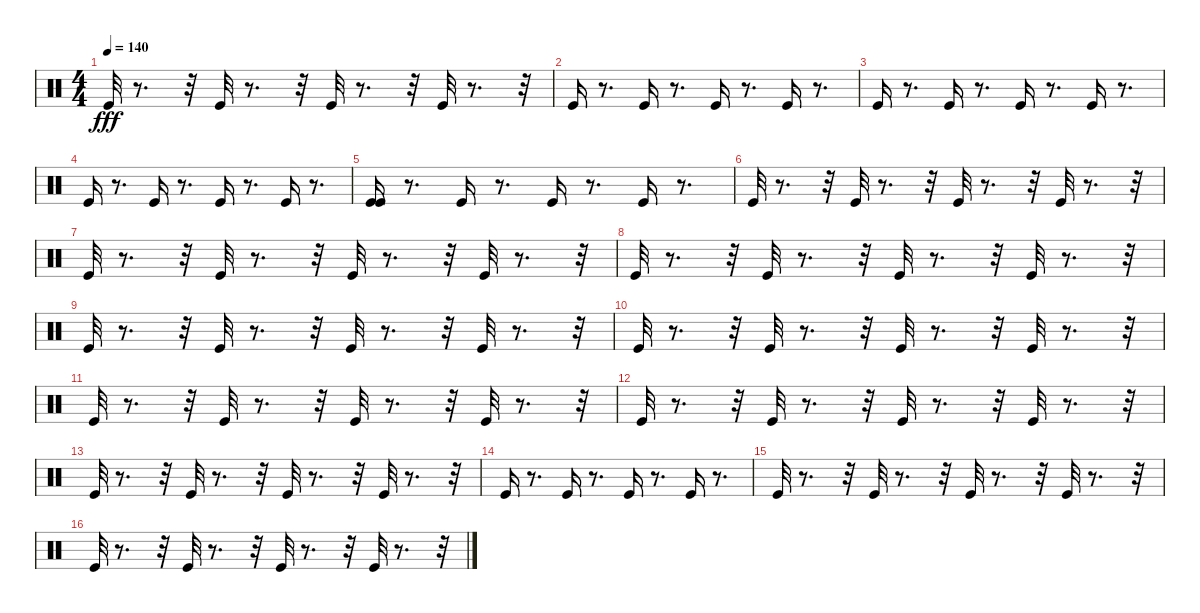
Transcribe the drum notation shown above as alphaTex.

\track "" {instrument percussion}
\staff {score}
\articulation defaults
\ts (4 4)
\tempo 140
\clef neutral
\ks c "Kick (hit)".32{dy fff}
r.8{d} r.32 "Kick (hit)".32 r.8{d} r.32 "Kick (hit)".32 r.8{d} r.32 "Kick (hit)".32 r.8{d} r.32 |
"Kick (hit)".16 r.8{d} "Kick (hit)".16 r.8{d} "Kick (hit)".16 r.8{d} "Kick (hit)".16 r.8{d} |
"Kick (hit)".16 r.8{d} "Kick (hit)".16 r.8{d} "Kick (hit)".16 r.8{d} "Kick (hit)".16 r.8{d} |
"Kick (hit)".16 r.8{d} "Kick (hit)".16 r.8{d} "Kick (hit)".16 r.8{d} "Kick (hit)".16 r.8{d} |
("Kick (hit)" "Kick (hit)").16 r.8{d} "Kick (hit)".16 r.8{d} "Kick (hit)".16 r.8{d} "Kick (hit)".16 r.8{d} |
"Kick (hit)".32 r.8{d} r.32 "Kick (hit)".32 r.8{d} r.32 "Kick (hit)".32 r.8{d} r.32 "Kick (hit)".32 r.8{d} r.32 |
"Kick (hit)".32 r.8{d} r.32 "Kick (hit)".32 r.8{d} r.32 "Kick (hit)".32 r.8{d} r.32 "Kick (hit)".32 r.8{d} r.32 |
"Kick (hit)".32 r.8{d} r.32 "Kick (hit)".32 r.8{d} r.32 "Kick (hit)".32 r.8{d} r.32 "Kick (hit)".32 r.8{d} r.32 |
"Kick (hit)".32 r.8{d} r.32 "Kick (hit)".32 r.8{d} r.32 "Kick (hit)".32 r.8{d} r.32 "Kick (hit)".32 r.8{d} r.32 |
"Kick (hit)".32 r.8{d} r.32 "Kick (hit)".32 r.8{d} r.32 "Kick (hit)".32 r.8{d} r.32 "Kick (hit)".32 r.8{d} r.32 |
"Kick (hit)".32 r.8{d} r.32 "Kick (hit)".32 r.8{d} r.32 "Kick (hit)".32 r.8{d} r.32 "Kick (hit)".32 r.8{d} r.32 |
"Kick (hit)".32 r.8{d} r.32 "Kick (hit)".32 r.8{d} r.32 "Kick (hit)".32 r.8{d} r.32 "Kick (hit)".32 r.8{d} r.32 |
"Kick (hit)".32 r.8{d} r.32 "Kick (hit)".32 r.8{d} r.32 "Kick (hit)".32 r.8{d} r.32 "Kick (hit)".32 r.8{d} r.32 |
"Kick (hit)".16 r.8{d} "Kick (hit)".16 r.8{d} "Kick (hit)".16 r.8{d} "Kick (hit)".16 r.8{d} |
"Kick (hit)".32 r.8{d} r.32 "Kick (hit)".32 r.8{d} r.32 "Kick (hit)".32 r.8{d} r.32 "Kick (hit)".32 r.8{d} r.32 |
"Kick (hit)".32 r.8{d} r.32 "Kick (hit)".32 r.8{d} r.32 "Kick (hit)".32 r.8{d} r.32 "Kick (hit)".32 r.8{d} r.32
